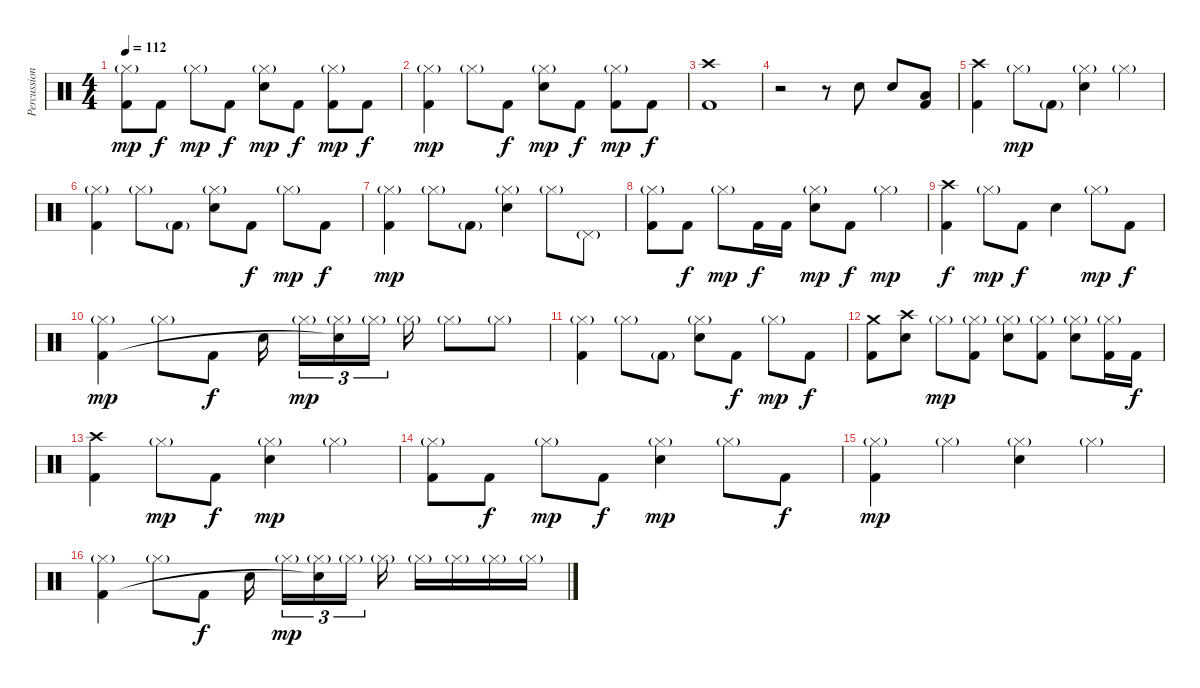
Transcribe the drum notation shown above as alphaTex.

\track ("Percussion" "Percussion") {instrument percussion}
\staff {score}
\articulation defaults
\ts (4 4)
\tempo 112
\clef neutral
\ks c
("Hi-Hat (closed)"{g} "Kick (hit) 2").8{dy mp} "Kick (hit) 2".8{dy f} "Hi-Hat (closed)"{g}.8{dy mp} "Kick (hit) 2".8{dy f} ("Hi-Hat (closed)"{g} "Electric Snare (hit)").8{dy mp} "Kick (hit) 2".8{dy f} ("Hi-Hat (closed)"{g} "Kick (hit) 2").8{dy mp} "Kick (hit) 2".8{dy f} |
("Hi-Hat (closed)"{g} "Kick (hit) 2").4{dy mp} "Hi-Hat (closed)"{g}.8 "Kick (hit) 2".8{dy f} ("Hi-Hat (closed)"{g} "Electric Snare (hit)").8{dy mp} "Kick (hit) 2".8{dy f} ("Hi-Hat (closed)"{g} "Kick (hit) 2").8{dy mp} "Kick (hit) 2".8{dy f} |
("Crash high (hit)" "Kick (hit) 2").1 |
r.2 r.8 "Snare (hit) 2".8 "Snare (hit) 2".8 ("Low Floor Tom (hit)" "Kick (hit) 2").8 |
("Crash high (hit)" "Kick (hit) 2").4 "Hi-Hat (closed)"{g}.8{dy mp} "Kick (hit) 2"{g}.8 ("Hi-Hat (closed)"{g} "Snare (hit) 2").4 "Hi-Hat (closed)"{g}.4 |
("Hi-Hat (closed)"{g} "Kick (hit) 2").4 "Hi-Hat (closed)"{g}.8 "Kick (hit) 2"{g}.8 ("Hi-Hat (closed)"{g} "Snare (hit) 2").8 "Kick (hit) 2".8{dy f} "Hi-Hat (closed)"{g}.8{dy mp} "Kick (hit) 2".8{dy f} |
("Hi-Hat (closed)"{g} "Kick (hit) 2").4{dy mp} "Hi-Hat (closed)"{g}.8 "Kick (hit) 2"{g}.8 ("Hi-Hat (closed)"{g} "Snare (hit) 2").4 "Hi-Hat (closed)"{g}.8 "Pedal Hi-Hat (hit)"{g}.8 |
("Hi-Hat (closed)"{g} "Kick (hit) 2").8 "Kick (hit) 2".8{dy f} "Hi-Hat (closed)"{g}.8{dy mp} "Kick (hit) 2".16{dy f} "Kick (hit) 2".16 ("Hi-Hat (closed)"{g} "Snare (hit) 2").8{dy mp} "Kick (hit) 2".8{dy f} "Hi-Hat (closed)"{g}.4{dy mp} |
("Crash high (hit)" "Kick (hit) 2").4{dy f} "Hi-Hat (closed)"{g}.8{dy mp} "Kick (hit) 2".8{dy f} "Snare (hit) 2".4 "Hi-Hat (closed)"{g}.8{dy mp} "Kick (hit) 2".8{dy f} |
("Hi-Hat (closed)"{g} "Kick (hit) 2").4{dy mp} "Hi-Hat (closed)"{g}.8 "Kick (hit) 2".8{dy f} "Snare (hit) 2".16 "Hi-Hat (closed)"{g}.16{tu (3 2) dy mp} ("Hi-Hat (closed)"{g} "Snare (hit)"{t}).16{tu (3 2)} "Hi-Hat (closed)"{g}.16{tu (3 2)} "Hi-Hat (closed)"{g}.16 "Hi-Hat (closed)"{g}.8 "Hi-Hat (closed)"{g}.8 |
("Hi-Hat (closed)"{g} "Kick (hit) 2").4 "Hi-Hat (closed)"{g}.8 "Kick (hit) 2"{g}.8 ("Hi-Hat (closed)"{g} "Snare (hit) 2").8 "Kick (hit) 2".8{dy f} "Hi-Hat (closed)"{g}.8{dy mp} "Kick (hit) 2".8{dy f} |
("Crash medium (hit)" "Kick (hit) 2").8 ("Crash high (hit)" "Snare (hit) 2").8 "Hi-Hat (closed)"{g}.8{dy mp} ("Hi-Hat (closed)"{g} "Kick (hit) 2").8 ("Hi-Hat (closed)"{g} "Snare (hit) 2").8 ("Hi-Hat (closed)"{g} "Kick (hit) 2").8 ("Hi-Hat (closed)"{g} "Snare (hit) 2").8 ("Hi-Hat (closed)"{g} "Kick (hit) 2").16 "Kick (hit) 2".16{dy f} |
("Crash high (hit)" "Kick (hit) 2").4 "Hi-Hat (closed)"{g}.8{dy mp} "Kick (hit) 2".8{dy f} ("Hi-Hat (closed)"{g} "Snare (hit) 2").4{dy mp} "Hi-Hat (closed)"{g}.4 |
("Hi-Hat (closed)"{g} "Kick (hit) 2").8 "Kick (hit) 2".8{dy f} "Hi-Hat (closed)"{g}.8{dy mp} "Kick (hit) 2".8{dy f} ("Hi-Hat (closed)"{g} "Snare (hit) 2").4{dy mp} "Hi-Hat (closed)"{g}.8 "Kick (hit) 2".8{dy f} |
("Hi-Hat (closed)"{g} "Kick (hit) 2").4{dy mp} "Hi-Hat (closed)"{g}.4 ("Hi-Hat (closed)"{g} "Snare (hit) 2").4 "Hi-Hat (closed)"{g}.4 |
("Hi-Hat (closed)"{g} "Kick (hit) 2").4 "Hi-Hat (closed)"{g}.8 "Kick (hit) 2".8{dy f} "Snare (hit) 2".16 "Hi-Hat (closed)"{g}.16{tu (3 2) dy mp} ("Hi-Hat (closed)"{g} "Snare (hit)"{t}).16{tu (3 2)} "Hi-Hat (closed)"{g}.16{tu (3 2)} "Hi-Hat (closed)"{g}.16 "Hi-Hat (closed)"{g}.16 "Hi-Hat (closed)"{g}.16 "Hi-Hat (closed)"{g}.16 "Hi-Hat (closed)"{g}.16
